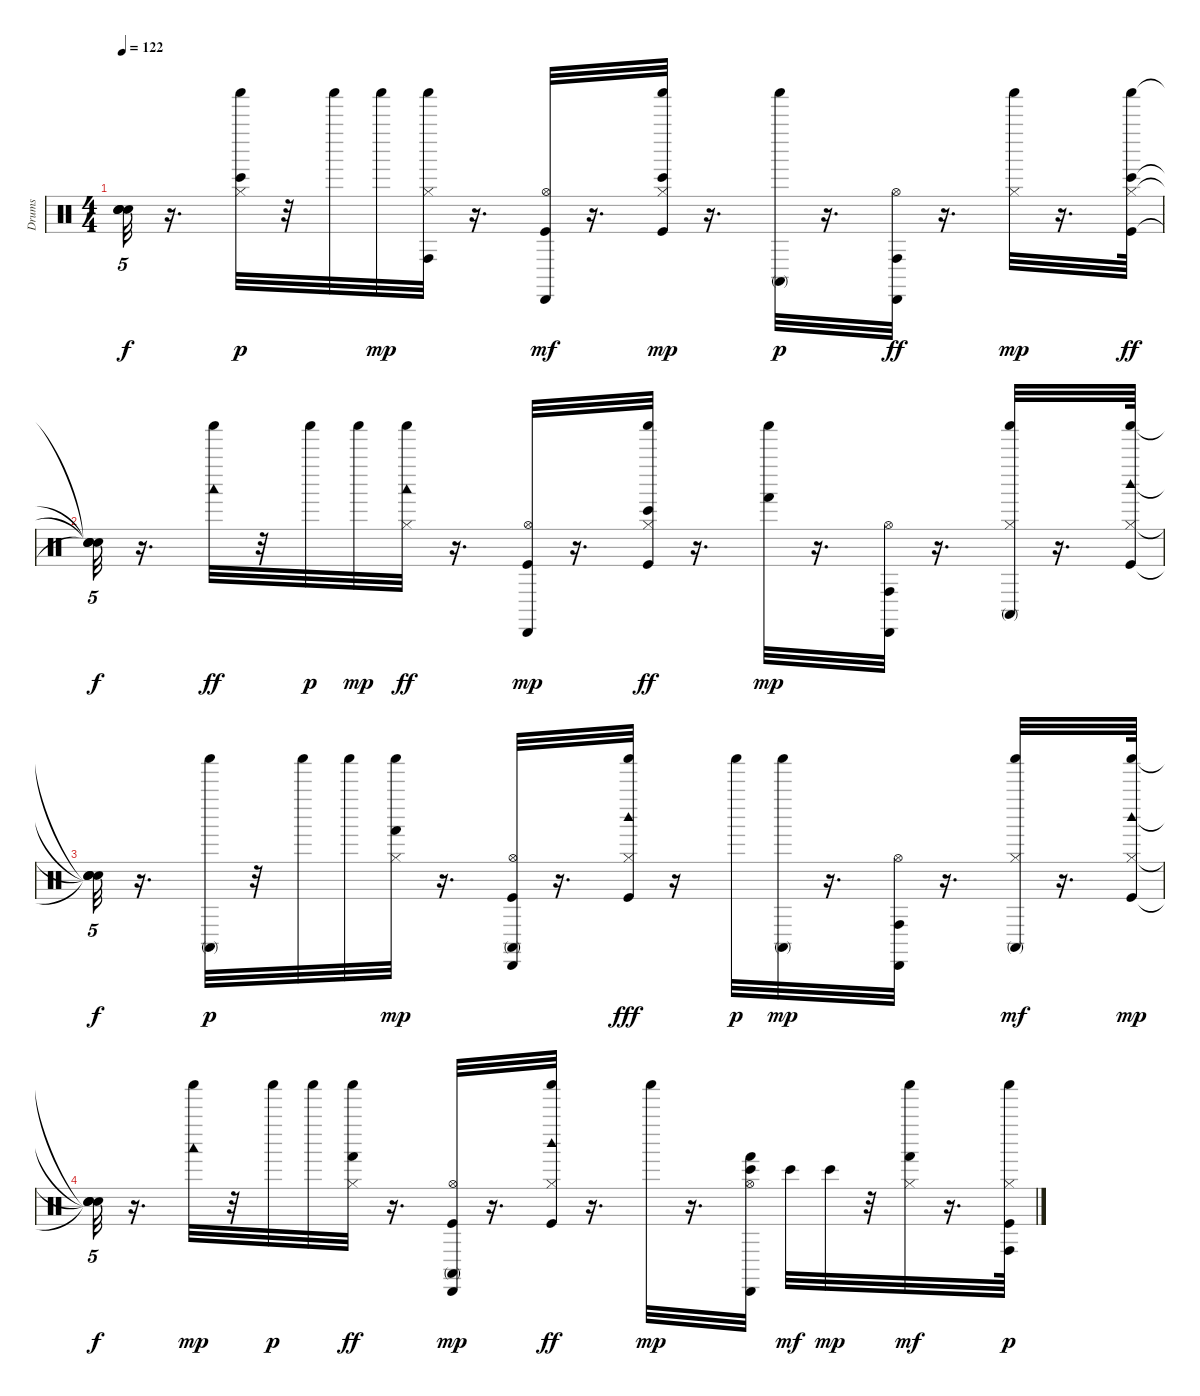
\track ("Drums" "Drums") {instrument percussion}
\staff {score}
\articulation defaults
\ts (4 4)
\tempo 122
\clef neutral
\ks c
("Snare (hit)"{t} "Snare (hit)"{t} "Snare (hit)"{t} "Snare (hit)"{t}).32{tu (5 4) dy f} r.16{d} ("Bongo High (hit)" "Hi-Hat (closed)" "Shaker (hit)").32{dy p} r.32 "Shaker (hit)".32 "Shaker (hit)".32{dy mp} ("Hi-Hat (closed)" "Conga high (hit)" "Shaker (hit)").32 r.16{d} ("Kick (hit)" "Hi-Hat (open)" "Cabasa (hit)").32{dy mf} r.16{d} ("Shaker (hit)" "Kick (hit)" "Hi-Hat (closed)" "Bongo High (hit)").32{dy mp} r.16{d} ("Shaker (hit)" "Conga high (mute)").32{dy p} r.16{d} ("Hi-Hat (open)" "Conga high (hit)" "Cabasa (hit)").32{dy ff} r.16{d} ("Shaker (hit)" "Hi-Hat (closed)").32{dy mp} r.16{d} ("Shaker (hit)" "Kick (hit)" "Hi-Hat (closed)" "Bongo High (hit)").64{dy ff} |
("Snare (hit)"{t} "Snare (hit)"{t} "Snare (hit)"{t} "Snare (hit)"{t}).32{tu (5 4) dy f} r.16{d} ("Shaker (hit)" "Woodblock low (hit)").32{dy ff} r.32 "Shaker (hit)".32{dy p} "Shaker (hit)".32{dy mp} ("Shaker (hit)" "Hi-Hat (closed)" "Woodblock low (hit)").32{dy ff} r.16{d} ("Kick (hit)" "Hi-Hat (open)" "Cabasa (hit)").32{dy mp} r.16{d} ("Hi-Hat (closed)" "Shaker (hit)" "Kick (hit)" "Bongo High (hit)").32{dy ff} r.16{d} ("Hand (hit)" "Shaker (hit)").32{dy mp} r.16{d} ("Hi-Hat (open)" "Conga high (hit)" "Cabasa (hit)").32 r.16{d} ("Shaker (hit)" "Hi-Hat (closed)" "Conga high (mute)").32 r.16{d} ("Kick (hit)" "Hi-Hat (closed)" "Woodblock high (hit)" "Shaker (hit)").64 |
("Snare (hit)"{t} "Snare (hit)"{t} "Snare (hit)"{t} "Snare (hit)"{t}).32{tu (5 4) dy f} r.16{d} ("Conga high (mute)" "Shaker (hit)").32{dy p} r.32 "Shaker (hit)".32 "Shaker (hit)".32 ("Hi-Hat (closed)" "Shaker (hit)" "Hand (hit)").32{dy mp} r.16{d} ("Kick (hit)" "Hi-Hat (open)" "Cabasa (hit)" "Conga high (mute)").32 r.16{d} ("Hi-Hat (closed)" "Shaker (hit)" "Kick (hit)" "Woodblock high (hit)").32{dy fff} r.16 "Shaker (hit)".32{dy p} ("Shaker (hit)" "Conga high (mute)").32{dy mp} r.16{d} ("Conga high (hit)" "Hi-Hat (open)" "Cabasa (hit)").32 r.16{d} ("Shaker (hit)" "Hi-Hat (closed)" "Conga high (mute)").32{dy mf} r.16{d} ("Woodblock high (hit)" "Shaker (hit)" "Kick (hit)" "Hi-Hat (closed)").64{dy mp} |
("Snare (hit)"{t} "Snare (hit)"{t} "Snare (hit)"{t} "Snare (hit)"{t}).32{tu (5 4) dy f} r.16{d} ("Shaker (hit)" "Woodblock low (hit)").32{dy mp} r.32 "Shaker (hit)".32{dy p} "Shaker (hit)".32 ("Shaker (hit)" "Hi-Hat (closed)" "Hand (hit)").32{dy ff} r.16{d} ("Kick (hit)" "Hi-Hat (open)" "Conga high (mute)" "Cabasa (hit)").32{dy mp} r.16{d} ("Hi-Hat (closed)" "Shaker (hit)" "Kick (hit)" "Woodblock high (hit)").32{dy ff} r.16{d} "Shaker (hit)".32{dy mp} r.16{d} ("Hi-Hat (open)" "Bongo High (hit)" "Cabasa (hit)" "Hand (hit)").32 "Bongo High (hit)".32{dy mf} "Bongo High (hit)".32{dy mp} r.32 ("Shaker (hit)" "Hi-Hat (closed)" "Hand (hit)").32{dy mf} r.16{d} ("Hi-Hat (closed)" "Kick (hit)" "Conga high (hit)" "Shaker (hit)").64{dy p}
